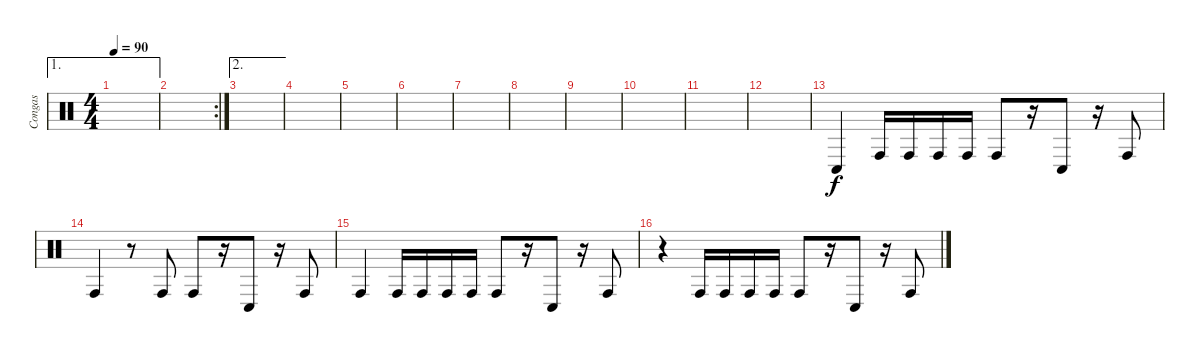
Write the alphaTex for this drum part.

\track ("Congas" "Congas") {instrument percussion}
\staff {score}
\articulation defaults
\ae 1
\ts (4 4)
\tempo 90
\clef neutral
\ks c
|
\rc 2
|
\ae 2
|
|
|
|
|
|
|
|
|
|
"Conga low (hit)".4 "Conga high (hit)".16 "Conga high (hit)".16 "Conga high (hit)".16 "Conga high (hit)".16 "Conga high (hit)".8 r.16 "Conga low (hit)".8 r.16 "Conga high (hit)".8 |
"Conga high (hit)".4 r.8 "Conga high (hit)".8 "Conga high (hit)".8 r.16 "Conga low (hit)".8 r.16 "Conga high (hit)".8 |
"Conga high (hit)".4 "Conga high (hit)".16 "Conga high (hit)".16 "Conga high (hit)".16 "Conga high (hit)".16 "Conga high (hit)".8 r.16 "Conga low (hit)".8 r.16 "Conga high (hit)".8 |
r.4 "Conga high (hit)".16 "Conga high (hit)".16 "Conga high (hit)".16 "Conga high (hit)".16 "Conga high (hit)".8 r.16 "Conga low (hit)".8 r.16 "Conga high (hit)".8
